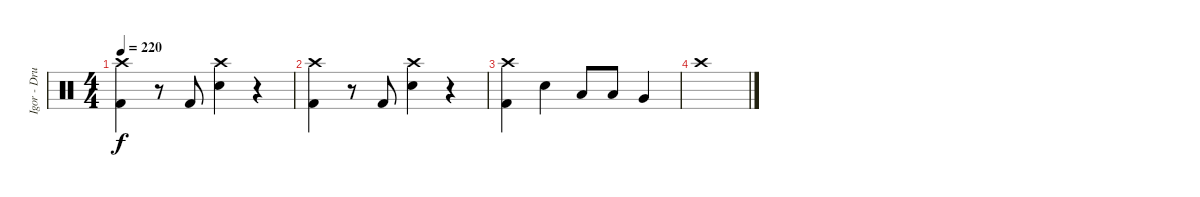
\track ("Igor - Drums" "Igor - Dru") {instrument percussion}
\staff {score}
\articulation defaults
\ts (4 4)
\tempo 220
\clef neutral
\ks c
("Crash high (hit)" "Kick (hit) 2").4{dy f} r.8 "Kick (hit) 2".8 ("Crash high (hit)" "Snare (hit) 2").4 r.4 |
("Crash high (hit)" "Kick (hit) 2").4 r.8 "Kick (hit) 2".8 ("Crash high (hit)" "Snare (hit) 2").4 r.4 |
("Crash high (hit)" "Kick (hit) 2").4 "Snare (hit) 2".4 "Low Tom (hit)".8 "Low Tom (hit)".8 "Very Low Tom (hit)".4 |
"Crash high (hit)".1
